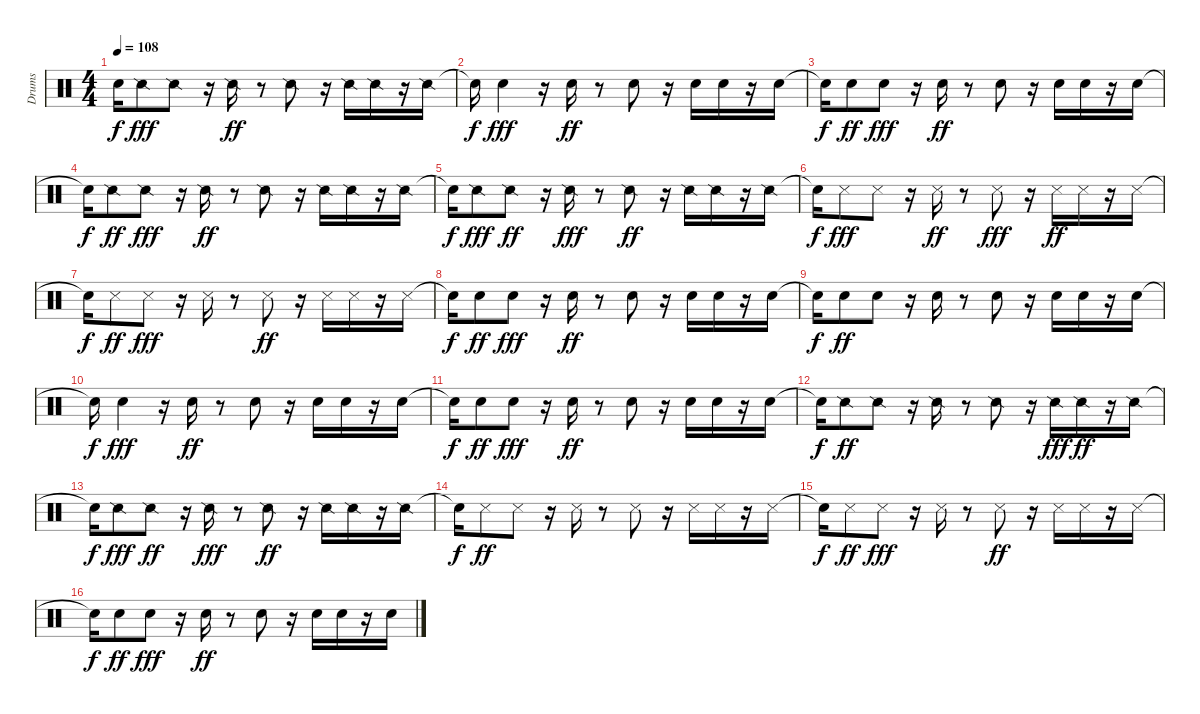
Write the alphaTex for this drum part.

\track ("Drums" "Drums") {instrument percussion}
\staff {score}
\articulation defaults
\ts (4 4)
\tempo 108
\clef neutral
\ks c "Snare (hit)"{t}.16{dy f} "Snare (side stick) 2".8{dy fff} "Snare (side stick) 2".8
r.16 "Snare (side stick) 2".16{dy ff} r.8 "Snare (side stick) 2".8 r.16 "Snare (side stick) 2".16 "Snare (side stick) 2".16 r.16 "Snare (side stick) 2".16 |
"Snare (hit)"{t}.16{dy f} "Metronome (bell)".4{dy fff} r.16 "Metronome (bell)".16{dy ff} r.8 "Metronome (bell)".8 r.16 "Metronome (bell)".16 "Metronome (bell)".16 r.16 "Metronome (bell)".16 |
"Snare (hit)"{t}.16{dy f} "Metronome (bell)".8{dy ff} "Metronome (bell)".8{dy fff} r.16 "Metronome (bell)".16{dy ff} r.8 "Metronome (bell)".8 r.16 "Metronome (bell)".16 "Metronome (bell)".16 r.16 "Metronome (bell)".16 |
"Snare (hit)"{t}.16{dy f} "Snare (side stick) 2".8{dy ff} "Snare (side stick) 2".8{dy fff} r.16 "Snare (side stick) 2".16{dy ff} r.8 "Snare (side stick) 2".8 r.16 "Snare (side stick) 2".16 "Snare (side stick) 2".16 r.16 "Snare (side stick) 2".16 |
"Snare (hit)"{t}.16{dy f} "Snare (side stick) 2".8{dy fff} "Snare (side stick) 2".8{dy ff} r.16 "Snare (side stick) 2".16{dy fff} r.8 "Snare (side stick) 2".8{dy ff} r.16 "Snare (side stick) 2".16 "Snare (side stick) 2".16 r.16 "Snare (side stick) 2".16 |
"Snare (hit)"{t}.16{dy f} "Snare (side stick) 3".8{dy fff} "Snare (side stick) 3".8 r.16 "Snare (side stick) 3".16{dy ff} r.8 "Snare (side stick) 3".8{dy fff} r.16 "Snare (side stick) 3".16{dy ff} "Snare (side stick) 3".16 r.16 "Snare (side stick) 3".16 |
"Snare (hit)"{t}.16{dy f} "Snare (side stick) 3".8{dy ff} "Snare (side stick) 3".8{dy fff} r.16 "Snare (side stick) 3".16 r.8 "Snare (side stick) 3".8{dy ff} r.16 "Snare (side stick) 3".16 "Snare (side stick) 3".16 r.16 "Snare (side stick) 3".16 |
"Snare (hit)"{t}.16{dy f} "Hand Clap (hit)".8{dy ff} "Hand Clap (hit)".8{dy fff} r.16 "Hand Clap (hit)".16{dy ff} r.8 "Hand Clap (hit)".8 r.16 "Hand Clap (hit)".16 "Hand Clap (hit)".16 r.16 "Hand Clap (hit)".16 |
"Snare (hit)"{t}.16{dy f} "Hand Clap (hit)".8{dy ff} "Hand Clap (hit)".8 r.16 "Hand Clap (hit)".16 r.8 "Hand Clap (hit)".8 r.16 "Hand Clap (hit)".16 "Hand Clap (hit)".16 r.16 "Hand Clap (hit)".16 |
"Snare (hit)"{t}.16{dy f} "Metronome (bell)".4{dy fff} r.16 "Metronome (bell)".16{dy ff} r.8 "Metronome (bell)".8 r.16 "Metronome (bell)".16 "Metronome (bell)".16 r.16 "Metronome (bell)".16 |
"Snare (hit)"{t}.16{dy f} "Metronome (bell)".8{dy ff} "Metronome (bell)".8{dy fff} r.16 "Metronome (bell)".16{dy ff} r.8 "Metronome (bell)".8 r.16 "Metronome (bell)".16 "Metronome (bell)".16 r.16 "Metronome (bell)".16 |
"Snare (hit)"{t}.16{dy f} "Snare (side stick) 2".8{dy ff} "Snare (side stick) 2".8 r.16 "Snare (side stick) 2".16 r.8 "Snare (side stick) 2".8 r.16 "Snare (side stick) 2".16{dy fff} "Snare (side stick) 2".16{dy ff} r.16 "Snare (side stick) 2".16 |
"Snare (hit)"{t}.16{dy f} "Snare (side stick) 2".8{dy fff} "Snare (side stick) 2".8{dy ff} r.16 "Snare (side stick) 2".16{dy fff} r.8 "Snare (side stick) 2".8{dy ff} r.16 "Snare (side stick) 2".16 "Snare (side stick) 2".16 r.16 "Snare (side stick) 2".16 |
"Snare (hit)"{t}.16{dy f} "Snare (side stick) 3".8{dy ff} "Snare (side stick) 3".8 r.16 "Snare (side stick) 3".16 r.8 "Snare (side stick) 3".8 r.16 "Snare (side stick) 3".16 "Snare (side stick) 3".16 r.16 "Snare (side stick) 3".16 |
"Snare (hit)"{t}.16{dy f} "Snare (side stick) 3".8{dy ff} "Snare (side stick) 3".8{dy fff} r.16 "Snare (side stick) 3".16 r.8 "Snare (side stick) 3".8{dy ff} r.16 "Snare (side stick) 3".16 "Snare (side stick) 3".16 r.16 "Snare (side stick) 3".16 |
"Snare (hit)"{t}.16{dy f} "Hand Clap (hit)".8{dy ff} "Hand Clap (hit)".8{dy fff} r.16 "Hand Clap (hit)".16{dy ff} r.8 "Hand Clap (hit)".8 r.16 "Hand Clap (hit)".16 "Hand Clap (hit)".16 r.16 "Hand Clap (hit)".16
